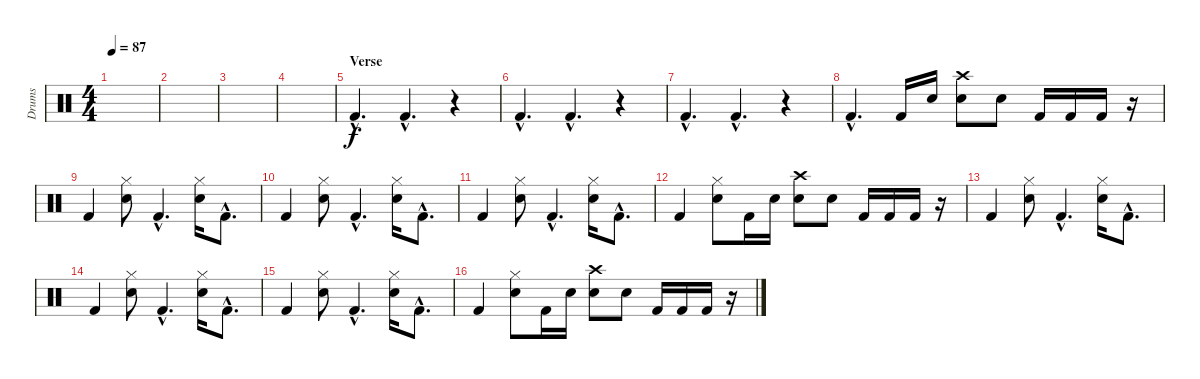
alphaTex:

\track ("Drums" "Drums") {instrument percussion}
\staff {score}
\articulation defaults
\ts (4 4)
\tempo 87
\clef neutral
\ks c
|
|
|
|
\section ("" "Verse")
"Kick (hit) 2"{hac}.4{d} "Kick (hit) 2"{hac}.4{d} r.4 |
"Kick (hit) 2"{hac}.4{d} "Kick (hit) 2"{hac}.4{d} r.4 |
"Kick (hit) 2"{hac}.4{d} "Kick (hit) 2"{hac}.4{d} r.4 |
"Kick (hit) 2"{hac}.4{d} "Kick (hit) 2".16 "Electric Snare (hit)".16 ("Crash high (hit)" "Electric Snare (hit)").8 "Snare (hit) 2".8 "Kick (hit) 2".16 "Kick (hit) 2".16 "Kick (hit) 2".16 r.16 |
"Kick (hit) 2".4 ("Hi-Hat (closed)" "Electric Snare (hit)").8 "Kick (hit) 2"{hac}.4{d} ("Hi-Hat (closed)" "Electric Snare (hit)").16 "Kick (hit) 2"{hac}.8{d} |
"Kick (hit) 2".4 ("Hi-Hat (closed)" "Electric Snare (hit)").8 "Kick (hit) 2"{hac}.4{d} ("Hi-Hat (closed)" "Electric Snare (hit)").16 "Kick (hit) 2"{hac}.8{d} |
"Kick (hit) 2".4 ("Hi-Hat (closed)" "Electric Snare (hit)").8 "Kick (hit) 2"{hac}.4{d} ("Hi-Hat (closed)" "Electric Snare (hit)").16 "Kick (hit) 2"{hac}.8{d} |
"Kick (hit) 2".4 ("Hi-Hat (closed)" "Electric Snare (hit)").8 "Kick (hit) 2".16 "Electric Snare (hit)".16 ("Crash high (hit)" "Electric Snare (hit)").8 "Snare (hit) 2".8 "Kick (hit) 2".16 "Kick (hit) 2".16 "Kick (hit) 2".16 r.16 |
"Kick (hit) 2".4 ("Hi-Hat (closed)" "Electric Snare (hit)").8 "Kick (hit) 2"{hac}.4{d} ("Hi-Hat (closed)" "Electric Snare (hit)").16 "Kick (hit) 2"{hac}.8{d} |
"Kick (hit) 2".4 ("Hi-Hat (closed)" "Electric Snare (hit)").8 "Kick (hit) 2"{hac}.4{d} ("Hi-Hat (closed)" "Electric Snare (hit)").16 "Kick (hit) 2"{hac}.8{d} |
"Kick (hit) 2".4 ("Hi-Hat (closed)" "Electric Snare (hit)").8 "Kick (hit) 2"{hac}.4{d} ("Hi-Hat (closed)" "Electric Snare (hit)").16 "Kick (hit) 2"{hac}.8{d} |
"Kick (hit) 2".4 ("Hi-Hat (closed)" "Electric Snare (hit)").8 "Kick (hit) 2".16 "Electric Snare (hit)".16 ("Crash high (hit)" "Electric Snare (hit)").8 "Snare (hit) 2".8 "Kick (hit) 2".16 "Kick (hit) 2".16 "Kick (hit) 2".16 r.16
